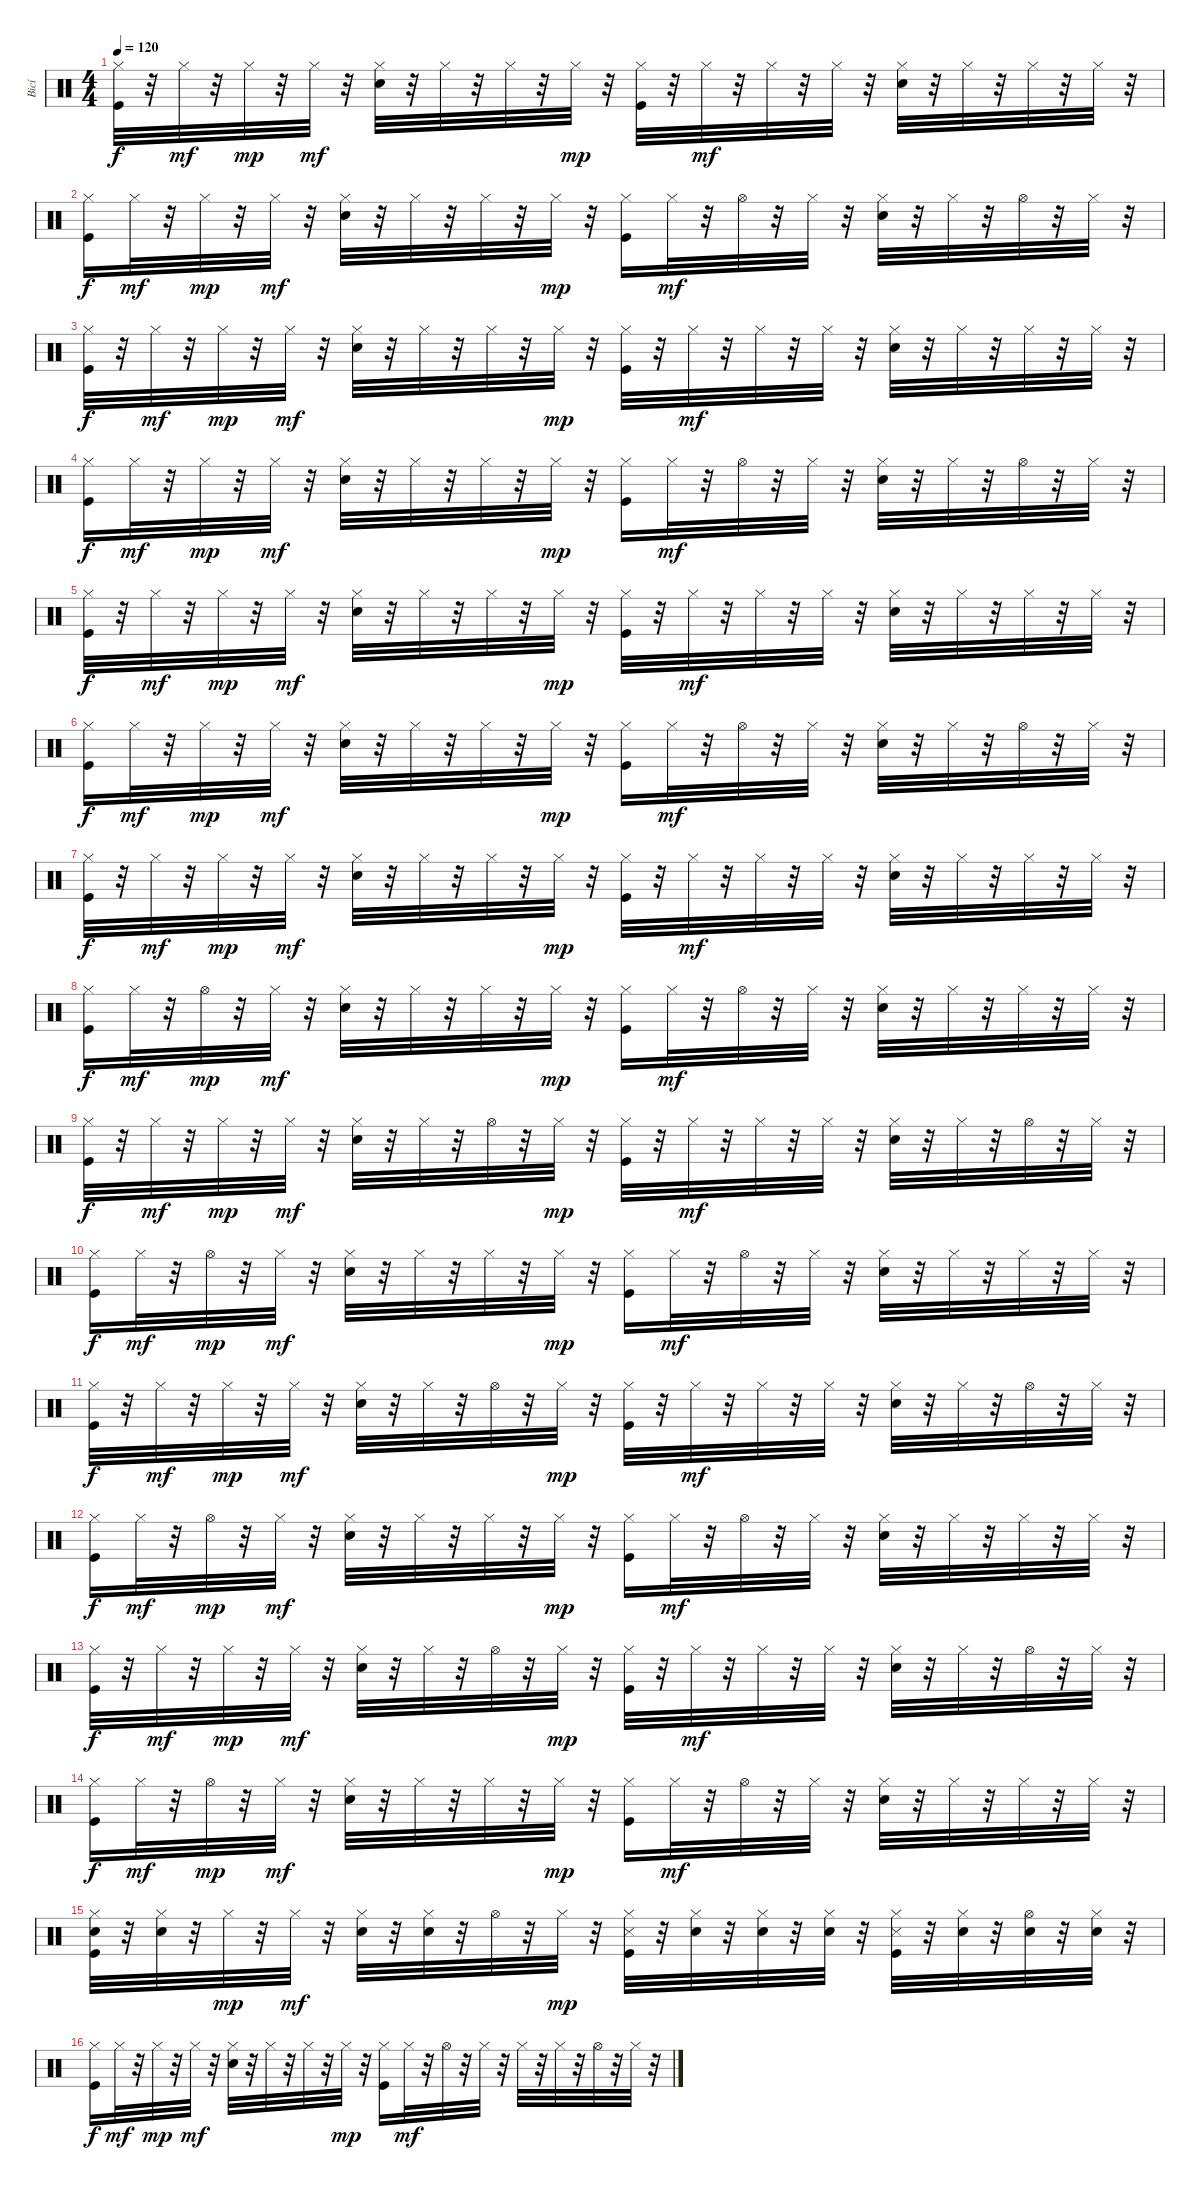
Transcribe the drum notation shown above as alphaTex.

\track ("Bicí" "Bicí") {instrument percussion}
\staff {score}
\articulation defaults
\ts (4 4)
\tempo 120
\clef neutral
\ks c
("Hi-Hat (closed)" "Kick (hit)").32{dy f} r.32 "Hi-Hat (closed)".32{dy mf} r.32 "Hi-Hat (closed)".32{dy mp} r.32 "Hi-Hat (closed)".32{dy mf} r.32 ("Hi-Hat (closed)" "Snare (hit) 2").32 r.32 "Hi-Hat (closed)".32 r.32 "Hi-Hat (closed)".32 r.32 "Hi-Hat (closed)".32{dy mp} r.32 ("Hi-Hat (closed)" "Kick (hit)").32 r.32 "Hi-Hat (closed)".32{dy mf} r.32 "Hi-Hat (closed)".32 r.32 "Hi-Hat (closed)".32 r.32 ("Hi-Hat (closed)" "Snare (hit) 2").32 r.32 "Hi-Hat (closed)".32 r.32 "Hi-Hat (closed)".32 r.32 "Hi-Hat (closed)".32 r.32 |
("Hi-Hat (closed)" "Kick (hit)").16{dy f} "Hi-Hat (closed)".32{dy mf} r.32 "Hi-Hat (closed)".32{dy mp} r.32 "Hi-Hat (closed)".32{dy mf} r.32 ("Hi-Hat (closed)" "Snare (hit) 2").32 r.32 "Hi-Hat (closed)".32 r.32 "Hi-Hat (closed)".32 r.32 "Hi-Hat (closed)".32{dy mp} r.32 ("Hi-Hat (closed)" "Kick (hit)").16 "Hi-Hat (closed)".32{dy mf} r.32 "Hi-Hat (open)".32 r.32 "Hi-Hat (closed)".32 r.32 ("Hi-Hat (closed)" "Snare (hit) 2").32 r.32 "Hi-Hat (closed)".32 r.32 "Hi-Hat (open)".32 r.32 "Hi-Hat (closed)".32 r.32 |
("Hi-Hat (closed)" "Kick (hit)").32{dy f} r.32 "Hi-Hat (closed)".32{dy mf} r.32 "Hi-Hat (closed)".32{dy mp} r.32 "Hi-Hat (closed)".32{dy mf} r.32 ("Hi-Hat (closed)" "Snare (hit) 2").32 r.32 "Hi-Hat (closed)".32 r.32 "Hi-Hat (closed)".32 r.32 "Hi-Hat (closed)".32{dy mp} r.32 ("Hi-Hat (closed)" "Kick (hit)").32 r.32 "Hi-Hat (closed)".32{dy mf} r.32 "Hi-Hat (closed)".32 r.32 "Hi-Hat (closed)".32 r.32 ("Hi-Hat (closed)" "Snare (hit) 2").32 r.32 "Hi-Hat (closed)".32 r.32 "Hi-Hat (closed)".32 r.32 "Hi-Hat (closed)".32 r.32 |
("Hi-Hat (closed)" "Kick (hit)").16{dy f} "Hi-Hat (closed)".32{dy mf} r.32 "Hi-Hat (closed)".32{dy mp} r.32 "Hi-Hat (closed)".32{dy mf} r.32 ("Hi-Hat (closed)" "Snare (hit) 2").32 r.32 "Hi-Hat (closed)".32 r.32 "Hi-Hat (closed)".32 r.32 "Hi-Hat (closed)".32{dy mp} r.32 ("Hi-Hat (closed)" "Kick (hit)").16 "Hi-Hat (closed)".32{dy mf} r.32 "Hi-Hat (open)".32 r.32 "Hi-Hat (closed)".32 r.32 ("Hi-Hat (closed)" "Snare (hit) 2").32 r.32 "Hi-Hat (closed)".32 r.32 "Hi-Hat (open)".32 r.32 "Hi-Hat (closed)".32 r.32 |
("Hi-Hat (closed)" "Kick (hit)").32{dy f} r.32 "Hi-Hat (closed)".32{dy mf} r.32 "Hi-Hat (closed)".32{dy mp} r.32 "Hi-Hat (closed)".32{dy mf} r.32 ("Hi-Hat (closed)" "Snare (hit) 2").32 r.32 "Hi-Hat (closed)".32 r.32 "Hi-Hat (closed)".32 r.32 "Hi-Hat (closed)".32{dy mp} r.32 ("Hi-Hat (closed)" "Kick (hit)").32 r.32 "Hi-Hat (closed)".32{dy mf} r.32 "Hi-Hat (closed)".32 r.32 "Hi-Hat (closed)".32 r.32 ("Hi-Hat (closed)" "Snare (hit) 2").32 r.32 "Hi-Hat (closed)".32 r.32 "Hi-Hat (closed)".32 r.32 "Hi-Hat (closed)".32 r.32 |
("Hi-Hat (closed)" "Kick (hit)").16{dy f} "Hi-Hat (closed)".32{dy mf} r.32 "Hi-Hat (closed)".32{dy mp} r.32 "Hi-Hat (closed)".32{dy mf} r.32 ("Hi-Hat (closed)" "Snare (hit) 2").32 r.32 "Hi-Hat (closed)".32 r.32 "Hi-Hat (closed)".32 r.32 "Hi-Hat (closed)".32{dy mp} r.32 ("Hi-Hat (closed)" "Kick (hit)").16 "Hi-Hat (closed)".32{dy mf} r.32 "Hi-Hat (open)".32 r.32 "Hi-Hat (closed)".32 r.32 ("Hi-Hat (closed)" "Snare (hit) 2").32 r.32 "Hi-Hat (closed)".32 r.32 "Hi-Hat (open)".32 r.32 "Hi-Hat (closed)".32 r.32 |
("Hi-Hat (closed)" "Kick (hit)").32{dy f} r.32 "Hi-Hat (closed)".32{dy mf} r.32 "Hi-Hat (closed)".32{dy mp} r.32 "Hi-Hat (closed)".32{dy mf} r.32 ("Hi-Hat (closed)" "Snare (hit) 2").32 r.32 "Hi-Hat (closed)".32 r.32 "Hi-Hat (closed)".32 r.32 "Hi-Hat (closed)".32{dy mp} r.32 ("Hi-Hat (closed)" "Kick (hit)").32 r.32 "Hi-Hat (closed)".32{dy mf} r.32 "Hi-Hat (closed)".32 r.32 "Hi-Hat (closed)".32 r.32 ("Hi-Hat (closed)" "Snare (hit) 2").32 r.32 "Hi-Hat (closed)".32 r.32 "Hi-Hat (closed)".32 r.32 "Hi-Hat (closed)".32 r.32 |
("Hi-Hat (closed)" "Kick (hit)").16{dy f} "Hi-Hat (closed)".32{dy mf} r.32 "Hi-Hat (open)".32{dy mp} r.32 "Hi-Hat (closed)".32{dy mf} r.32 ("Hi-Hat (closed)" "Snare (hit) 2").32 r.32 "Hi-Hat (closed)".32 r.32 "Hi-Hat (closed)".32 r.32 "Hi-Hat (closed)".32{dy mp} r.32 ("Hi-Hat (closed)" "Kick (hit)").16 "Hi-Hat (closed)".32{dy mf} r.32 "Hi-Hat (open)".32 r.32 "Hi-Hat (closed)".32 r.32 ("Hi-Hat (closed)" "Snare (hit) 2").32 r.32 "Hi-Hat (closed)".32 r.32 "Hi-Hat (closed)".32 r.32 "Hi-Hat (closed)".32 r.32 |
("Hi-Hat (closed)" "Kick (hit)").32{dy f} r.32 "Hi-Hat (closed)".32{dy mf} r.32 "Hi-Hat (closed)".32{dy mp} r.32 "Hi-Hat (closed)".32{dy mf} r.32 ("Hi-Hat (closed)" "Snare (hit) 2").32 r.32 "Hi-Hat (closed)".32 r.32 "Hi-Hat (open)".32 r.32 "Hi-Hat (closed)".32{dy mp} r.32 ("Hi-Hat (closed)" "Kick (hit)").32 r.32 "Hi-Hat (closed)".32{dy mf} r.32 "Hi-Hat (closed)".32 r.32 "Hi-Hat (closed)".32 r.32 ("Hi-Hat (closed)" "Snare (hit) 2").32 r.32 "Hi-Hat (closed)".32 r.32 "Hi-Hat (open)".32 r.32 "Hi-Hat (closed)".32 r.32 |
("Hi-Hat (closed)" "Kick (hit)").16{dy f} "Hi-Hat (closed)".32{dy mf} r.32 "Hi-Hat (open)".32{dy mp} r.32 "Hi-Hat (closed)".32{dy mf} r.32 ("Hi-Hat (closed)" "Snare (hit) 2").32 r.32 "Hi-Hat (closed)".32 r.32 "Hi-Hat (closed)".32 r.32 "Hi-Hat (closed)".32{dy mp} r.32 ("Hi-Hat (closed)" "Kick (hit)").16 "Hi-Hat (closed)".32{dy mf} r.32 "Hi-Hat (open)".32 r.32 "Hi-Hat (closed)".32 r.32 ("Hi-Hat (closed)" "Snare (hit) 2").32 r.32 "Hi-Hat (closed)".32 r.32 "Hi-Hat (closed)".32 r.32 "Hi-Hat (closed)".32 r.32 |
("Hi-Hat (closed)" "Kick (hit)").32{dy f} r.32 "Hi-Hat (closed)".32{dy mf} r.32 "Hi-Hat (closed)".32{dy mp} r.32 "Hi-Hat (closed)".32{dy mf} r.32 ("Hi-Hat (closed)" "Snare (hit) 2").32 r.32 "Hi-Hat (closed)".32 r.32 "Hi-Hat (open)".32 r.32 "Hi-Hat (closed)".32{dy mp} r.32 ("Hi-Hat (closed)" "Kick (hit)").32 r.32 "Hi-Hat (closed)".32{dy mf} r.32 "Hi-Hat (closed)".32 r.32 "Hi-Hat (closed)".32 r.32 ("Hi-Hat (closed)" "Snare (hit) 2").32 r.32 "Hi-Hat (closed)".32 r.32 "Hi-Hat (open)".32 r.32 "Hi-Hat (closed)".32 r.32 |
("Hi-Hat (closed)" "Kick (hit)").16{dy f} "Hi-Hat (closed)".32{dy mf} r.32 "Hi-Hat (open)".32{dy mp} r.32 "Hi-Hat (closed)".32{dy mf} r.32 ("Hi-Hat (closed)" "Snare (hit) 2").32 r.32 "Hi-Hat (closed)".32 r.32 "Hi-Hat (closed)".32 r.32 "Hi-Hat (closed)".32{dy mp} r.32 ("Hi-Hat (closed)" "Kick (hit)").16 "Hi-Hat (closed)".32{dy mf} r.32 "Hi-Hat (open)".32 r.32 "Hi-Hat (closed)".32 r.32 ("Hi-Hat (closed)" "Snare (hit) 2").32 r.32 "Hi-Hat (closed)".32 r.32 "Hi-Hat (closed)".32 r.32 "Hi-Hat (closed)".32 r.32 |
("Hi-Hat (closed)" "Kick (hit)").32{dy f} r.32 "Hi-Hat (closed)".32{dy mf} r.32 "Hi-Hat (closed)".32{dy mp} r.32 "Hi-Hat (closed)".32{dy mf} r.32 ("Hi-Hat (closed)" "Snare (hit) 2").32 r.32 "Hi-Hat (closed)".32 r.32 "Hi-Hat (open)".32 r.32 "Hi-Hat (closed)".32{dy mp} r.32 ("Hi-Hat (closed)" "Kick (hit)").32 r.32 "Hi-Hat (closed)".32{dy mf} r.32 "Hi-Hat (closed)".32 r.32 "Hi-Hat (closed)".32 r.32 ("Hi-Hat (closed)" "Snare (hit) 2").32 r.32 "Hi-Hat (closed)".32 r.32 "Hi-Hat (open)".32 r.32 "Hi-Hat (closed)".32 r.32 |
("Hi-Hat (closed)" "Kick (hit)").16{dy f} "Hi-Hat (closed)".32{dy mf} r.32 "Hi-Hat (open)".32{dy mp} r.32 "Hi-Hat (closed)".32{dy mf} r.32 ("Hi-Hat (closed)" "Snare (hit) 2").32 r.32 "Hi-Hat (closed)".32 r.32 "Hi-Hat (closed)".32 r.32 "Hi-Hat (closed)".32{dy mp} r.32 ("Hi-Hat (closed)" "Kick (hit)").16 "Hi-Hat (closed)".32{dy mf} r.32 "Hi-Hat (open)".32 r.32 "Hi-Hat (closed)".32 r.32 ("Hi-Hat (closed)" "Snare (hit) 2").32 r.32 "Hi-Hat (closed)".32 r.32 "Hi-Hat (closed)".32 r.32 "Hi-Hat (closed)".32 r.32 |
("Hi-Hat (closed)" "Kick (hit)" "Snare (hit) 2").32 r.32 ("Hi-Hat (closed)" "Snare (hit) 2").32 r.32 "Hi-Hat (closed)".32{dy mp} r.32 "Hi-Hat (closed)".32{dy mf} r.32 ("Hi-Hat (closed)" "Snare (hit) 2").32 r.32 ("Hi-Hat (closed)" "Snare (hit) 2").32 r.32 "Hi-Hat (open)".32 r.32 "Hi-Hat (closed)".32{dy mp} r.32 ("Hi-Hat (closed)" "Kick (hit)" "Metronome (hit)").32 r.32 ("Hi-Hat (closed)" "Snare (hit) 2").32 r.32 ("Hi-Hat (closed)" "Snare (hit) 2").32 r.32 ("Hi-Hat (closed)" "Snare (hit) 2").32 r.32 ("Hi-Hat (closed)" "Metronome (hit)" "Kick (hit)").32 r.32 ("Hi-Hat (closed)" "Snare (hit) 2").32 r.32 ("Hi-Hat (open)" "Snare (hit) 2").32 r.32 ("Hi-Hat (closed)" "Snare (hit) 2").32 r.32 |
("Hi-Hat (closed)" "Kick (hit)").16{dy f} "Hi-Hat (closed)".32{dy mf} r.32 "Hi-Hat (closed)".32{dy mp} r.32 "Hi-Hat (closed)".32{dy mf} r.32 ("Hi-Hat (closed)" "Snare (hit) 2").32 r.32 "Hi-Hat (closed)".32 r.32 "Hi-Hat (closed)".32 r.32 "Hi-Hat (closed)".32{dy mp} r.32 ("Hi-Hat (closed)" "Kick (hit)").16 "Hi-Hat (closed)".32{dy mf} r.32 "Hi-Hat (open)".32 r.32 "Hi-Hat (closed)".32 r.32 "Hi-Hat (closed)".32 r.32 "Hi-Hat (closed)".32 r.32 "Hi-Hat (open)".32 r.32 "Hi-Hat (closed)".32 r.32
